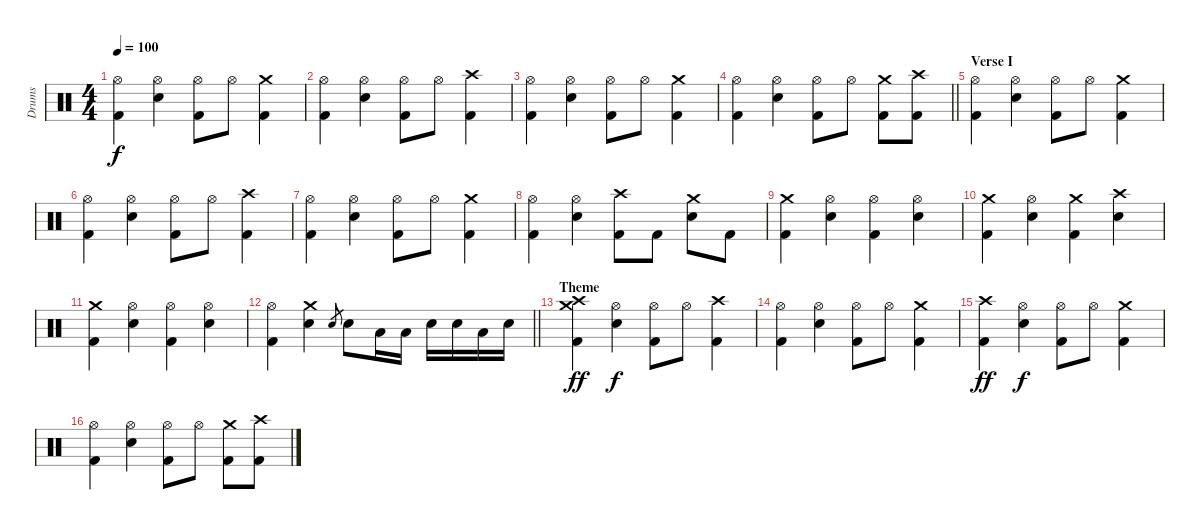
\track ("Drums" "Drums") {instrument percussion}
\staff {score}
\articulation defaults
\ts (4 4)
\tempo 100
\clef neutral
\ks c
("Hi-Hat (open)" "Kick (hit) 2").4{dy f} ("Hi-Hat (open)" "Snare (hit) 2").4 ("Hi-Hat (open)" "Kick (hit) 2").8 "Hi-Hat (open)".8 ("Crash medium (hit)" "Kick (hit) 2").4 |
("Hi-Hat (open)" "Kick (hit) 2").4 ("Hi-Hat (open)" "Snare (hit) 2").4 ("Hi-Hat (open)" "Kick (hit) 2").8 "Hi-Hat (open)".8 ("Crash high (hit)" "Kick (hit) 2").4 |
("Hi-Hat (open)" "Kick (hit) 2").4 ("Hi-Hat (open)" "Snare (hit) 2").4 ("Hi-Hat (open)" "Kick (hit) 2").8 "Hi-Hat (open)".8 ("Crash medium (hit)" "Kick (hit) 2").4 |
\barLineRight lightlight
("Hi-Hat (open)" "Kick (hit) 2").4 ("Hi-Hat (open)" "Snare (hit) 2").4 ("Hi-Hat (open)" "Kick (hit) 2").8 "Hi-Hat (open)".8 ("Crash medium (hit)" "Kick (hit) 2").8 ("Crash high (hit)" "Kick (hit) 2").8 |
\section ("" "Verse I")
("Hi-Hat (open)" "Kick (hit) 2").4 ("Hi-Hat (open)" "Snare (hit) 2").4 ("Hi-Hat (open)" "Kick (hit) 2").8 "Hi-Hat (open)".8 ("Crash medium (hit)" "Kick (hit) 2").4 |
("Hi-Hat (open)" "Kick (hit) 2").4 ("Hi-Hat (open)" "Snare (hit) 2").4 ("Hi-Hat (open)" "Kick (hit) 2").8 "Hi-Hat (open)".8 ("Crash high (hit)" "Kick (hit) 2").4 |
("Hi-Hat (open)" "Kick (hit) 2").4 ("Hi-Hat (open)" "Snare (hit) 2").4 ("Hi-Hat (open)" "Kick (hit) 2").8 "Hi-Hat (open)".8 ("Crash medium (hit)" "Kick (hit) 2").4 |
("Hi-Hat (open)" "Kick (hit) 2").4 ("Hi-Hat (open)" "Snare (hit) 2").4 ("Crash high (hit)" "Kick (hit) 2").8 "Kick (hit) 2".8 ("Crash medium (hit)" "Snare (hit) 2").8 "Kick (hit) 2".8 |
("Crash medium (hit)" "Kick (hit) 2").4 ("Hi-Hat (open)" "Snare (hit) 2").4 ("Hi-Hat (open)" "Kick (hit) 2").4 ("Hi-Hat (open)" "Snare (hit) 2").4 |
("Crash medium (hit)" "Kick (hit) 2").4 ("Hi-Hat (open)" "Snare (hit) 2").4 ("Crash medium (hit)" "Kick (hit) 2").4 ("Crash high (hit)" "Snare (hit) 2").4 |
("Crash medium (hit)" "Kick (hit) 2").4 ("Hi-Hat (open)" "Snare (hit) 2").4 ("Hi-Hat (open)" "Kick (hit) 2").4 ("Hi-Hat (open)" "Snare (hit) 2").4 |
\barLineRight lightlight
("Hi-Hat (open)" "Kick (hit) 2").4 ("Crash medium (hit)" "Snare (hit) 2").4 "Electric Snare (hit)".8{gr} "Electric Snare (hit)".8 "Low Floor Tom (hit)".16 "Low Floor Tom (hit)".16 "Electric Snare (hit)".16 "Electric Snare (hit)".16 "Low Floor Tom (hit)".16 "Electric Snare (hit)".16 |
\section ("" "Theme")
("Crash high (hit)" "Crash medium (hit)" "Kick (hit) 2").4{dy ff} ("Hi-Hat (open)" "Snare (hit) 2").4{dy f} ("Hi-Hat (open)" "Kick (hit) 2").8 "Hi-Hat (open)".8 ("Crash high (hit)" "Kick (hit) 2").4 |
("Hi-Hat (open)" "Kick (hit) 2").4 ("Hi-Hat (open)" "Snare (hit) 2").4 ("Hi-Hat (open)" "Kick (hit) 2").8 "Hi-Hat (open)".8 ("Crash medium (hit)" "Kick (hit) 2").4 |
("Crash high (hit)" "Kick (hit) 2").4{dy ff} ("Hi-Hat (open)" "Snare (hit) 2").4{dy f} ("Hi-Hat (open)" "Kick (hit) 2").8 "Hi-Hat (open)".8 ("Crash medium (hit)" "Kick (hit) 2").4 |
("Hi-Hat (open)" "Kick (hit) 2").4 ("Hi-Hat (open)" "Snare (hit) 2").4 ("Hi-Hat (open)" "Kick (hit) 2").8 "Hi-Hat (open)".8 ("Crash medium (hit)" "Kick (hit) 2").8 ("Crash high (hit)" "Kick (hit) 2").8
